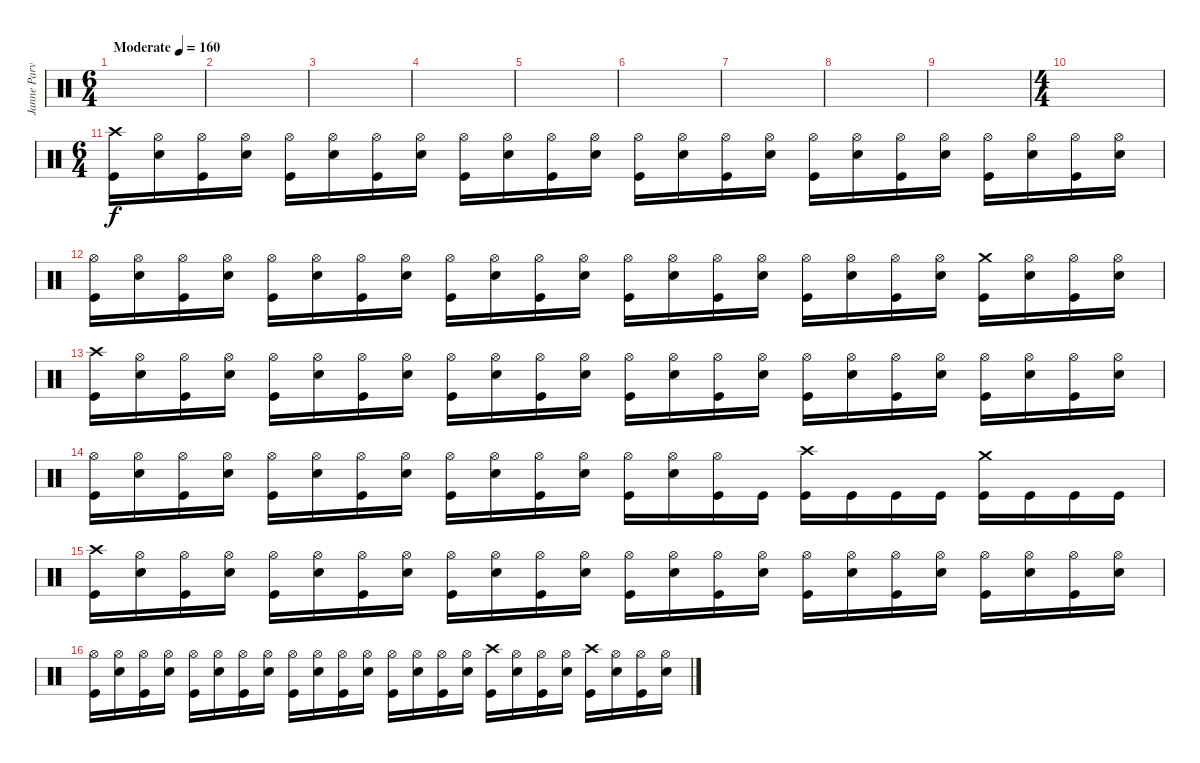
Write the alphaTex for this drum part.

\track ("Janne Parviainen" "Janne Parv") {instrument percussion}
\staff {score}
\articulation defaults
\ts (6 4)
\tempo (160 "Moderate")
\clef neutral
\ks c
|
|
|
|
|
|
|
|
|
\ts (4 4)
|
\ts (6 4)
("Crash high (hit)" "Kick (hit)").16 ("Hi-Hat (open)" "Electric Snare (hit)").16 ("Hi-Hat (open)" "Kick (hit)").16 ("Hi-Hat (open)" "Electric Snare (hit)").16 ("Hi-Hat (open)" "Kick (hit)").16 ("Hi-Hat (open)" "Electric Snare (hit)").16 ("Hi-Hat (open)" "Kick (hit)").16 ("Hi-Hat (open)" "Electric Snare (hit)").16 ("Hi-Hat (open)" "Kick (hit)").16 ("Hi-Hat (open)" "Electric Snare (hit)").16 ("Hi-Hat (open)" "Kick (hit)").16 ("Hi-Hat (open)" "Electric Snare (hit)").16 ("Hi-Hat (open)" "Kick (hit)").16 ("Hi-Hat (open)" "Electric Snare (hit)").16 ("Hi-Hat (open)" "Kick (hit)").16 ("Hi-Hat (open)" "Electric Snare (hit)").16 ("Hi-Hat (open)" "Kick (hit)").16 ("Hi-Hat (open)" "Electric Snare (hit)").16 ("Hi-Hat (open)" "Kick (hit)").16 ("Hi-Hat (open)" "Electric Snare (hit)").16 ("Hi-Hat (open)" "Kick (hit)").16 ("Hi-Hat (open)" "Electric Snare (hit)").16 ("Hi-Hat (open)" "Kick (hit)").16 ("Hi-Hat (open)" "Electric Snare (hit)").16 |
("Hi-Hat (open)" "Kick (hit)").16 ("Hi-Hat (open)" "Electric Snare (hit)").16 ("Hi-Hat (open)" "Kick (hit)").16 ("Hi-Hat (open)" "Electric Snare (hit)").16 ("Hi-Hat (open)" "Kick (hit)").16 ("Hi-Hat (open)" "Electric Snare (hit)").16 ("Hi-Hat (open)" "Kick (hit)").16 ("Hi-Hat (open)" "Electric Snare (hit)").16 ("Hi-Hat (open)" "Kick (hit)").16 ("Hi-Hat (open)" "Electric Snare (hit)").16 ("Hi-Hat (open)" "Kick (hit)").16 ("Hi-Hat (open)" "Electric Snare (hit)").16 ("Hi-Hat (open)" "Kick (hit)").16 ("Hi-Hat (open)" "Electric Snare (hit)").16 ("Hi-Hat (open)" "Kick (hit)").16 ("Hi-Hat (open)" "Electric Snare (hit)").16 ("Hi-Hat (open)" "Kick (hit)").16 ("Hi-Hat (open)" "Electric Snare (hit)").16 ("Hi-Hat (open)" "Kick (hit)").16 ("Hi-Hat (open)" "Electric Snare (hit)").16 ("Crash medium (hit)" "Kick (hit)").16 ("Hi-Hat (open)" "Electric Snare (hit)").16 ("Hi-Hat (open)" "Kick (hit)").16 ("Hi-Hat (open)" "Electric Snare (hit)").16 |
("Crash high (hit)" "Kick (hit)").16 ("Hi-Hat (open)" "Electric Snare (hit)").16 ("Hi-Hat (open)" "Kick (hit)").16 ("Hi-Hat (open)" "Electric Snare (hit)").16 ("Hi-Hat (open)" "Kick (hit)").16 ("Hi-Hat (open)" "Electric Snare (hit)").16 ("Hi-Hat (open)" "Kick (hit)").16 ("Hi-Hat (open)" "Electric Snare (hit)").16 ("Hi-Hat (open)" "Kick (hit)").16 ("Hi-Hat (open)" "Electric Snare (hit)").16 ("Hi-Hat (open)" "Kick (hit)").16 ("Hi-Hat (open)" "Electric Snare (hit)").16 ("Hi-Hat (open)" "Kick (hit)").16 ("Hi-Hat (open)" "Electric Snare (hit)").16 ("Hi-Hat (open)" "Kick (hit)").16 ("Hi-Hat (open)" "Electric Snare (hit)").16 ("Hi-Hat (open)" "Kick (hit)").16 ("Hi-Hat (open)" "Electric Snare (hit)").16 ("Hi-Hat (open)" "Kick (hit)").16 ("Hi-Hat (open)" "Electric Snare (hit)").16 ("Hi-Hat (open)" "Kick (hit)").16 ("Hi-Hat (open)" "Electric Snare (hit)").16 ("Hi-Hat (open)" "Kick (hit)").16 ("Hi-Hat (open)" "Electric Snare (hit)").16 |
("Hi-Hat (open)" "Kick (hit)").16 ("Hi-Hat (open)" "Electric Snare (hit)").16 ("Hi-Hat (open)" "Kick (hit)").16 ("Hi-Hat (open)" "Electric Snare (hit)").16 ("Hi-Hat (open)" "Kick (hit)").16 ("Hi-Hat (open)" "Electric Snare (hit)").16 ("Hi-Hat (open)" "Kick (hit)").16 ("Hi-Hat (open)" "Electric Snare (hit)").16 ("Hi-Hat (open)" "Kick (hit)").16 ("Hi-Hat (open)" "Electric Snare (hit)").16 ("Hi-Hat (open)" "Kick (hit)").16 ("Hi-Hat (open)" "Electric Snare (hit)").16 ("Hi-Hat (open)" "Kick (hit)").16 ("Hi-Hat (open)" "Electric Snare (hit)").16 ("Hi-Hat (open)" "Kick (hit)").16 "Kick (hit)".16 ("Crash high (hit)" "Kick (hit)").16 "Kick (hit)".16 "Kick (hit)".16 "Kick (hit)".16 ("Crash medium (hit)" "Kick (hit)").16 "Kick (hit)".16 "Kick (hit)".16 "Kick (hit)".16 |
("Crash high (hit)" "Kick (hit)").16 ("Hi-Hat (open)" "Electric Snare (hit)").16 ("Hi-Hat (open)" "Kick (hit)").16 ("Hi-Hat (open)" "Electric Snare (hit)").16 ("Hi-Hat (open)" "Kick (hit)").16 ("Hi-Hat (open)" "Electric Snare (hit)").16 ("Hi-Hat (open)" "Kick (hit)").16 ("Hi-Hat (open)" "Electric Snare (hit)").16 ("Hi-Hat (open)" "Kick (hit)").16 ("Hi-Hat (open)" "Electric Snare (hit)").16 ("Hi-Hat (open)" "Kick (hit)").16 ("Hi-Hat (open)" "Electric Snare (hit)").16 ("Hi-Hat (open)" "Kick (hit)").16 ("Hi-Hat (open)" "Electric Snare (hit)").16 ("Hi-Hat (open)" "Kick (hit)").16 ("Hi-Hat (open)" "Electric Snare (hit)").16 ("Hi-Hat (open)" "Kick (hit)").16 ("Hi-Hat (open)" "Electric Snare (hit)").16 ("Hi-Hat (open)" "Kick (hit)").16 ("Hi-Hat (open)" "Electric Snare (hit)").16 ("Hi-Hat (open)" "Kick (hit)").16 ("Hi-Hat (open)" "Electric Snare (hit)").16 ("Hi-Hat (open)" "Kick (hit)").16 ("Hi-Hat (open)" "Electric Snare (hit)").16 |
("Hi-Hat (open)" "Kick (hit)").16 ("Hi-Hat (open)" "Electric Snare (hit)").16 ("Hi-Hat (open)" "Kick (hit)").16 ("Hi-Hat (open)" "Electric Snare (hit)").16 ("Hi-Hat (open)" "Kick (hit)").16 ("Hi-Hat (open)" "Electric Snare (hit)").16 ("Hi-Hat (open)" "Kick (hit)").16 ("Hi-Hat (open)" "Electric Snare (hit)").16 ("Hi-Hat (open)" "Kick (hit)").16 ("Hi-Hat (open)" "Electric Snare (hit)").16 ("Hi-Hat (open)" "Kick (hit)").16 ("Hi-Hat (open)" "Electric Snare (hit)").16 ("Hi-Hat (open)" "Kick (hit)").16 ("Hi-Hat (open)" "Electric Snare (hit)").16 ("Hi-Hat (open)" "Kick (hit)").16 ("Hi-Hat (open)" "Electric Snare (hit)").16 ("Crash high (hit)" "Kick (hit)").16 ("Hi-Hat (open)" "Electric Snare (hit)").16 ("Hi-Hat (open)" "Kick (hit)").16 ("Hi-Hat (open)" "Electric Snare (hit)").16 ("Crash high (hit)" "Kick (hit)").16 ("Hi-Hat (open)" "Electric Snare (hit)").16 ("Hi-Hat (open)" "Kick (hit)").16 ("Hi-Hat (open)" "Electric Snare (hit)").16
